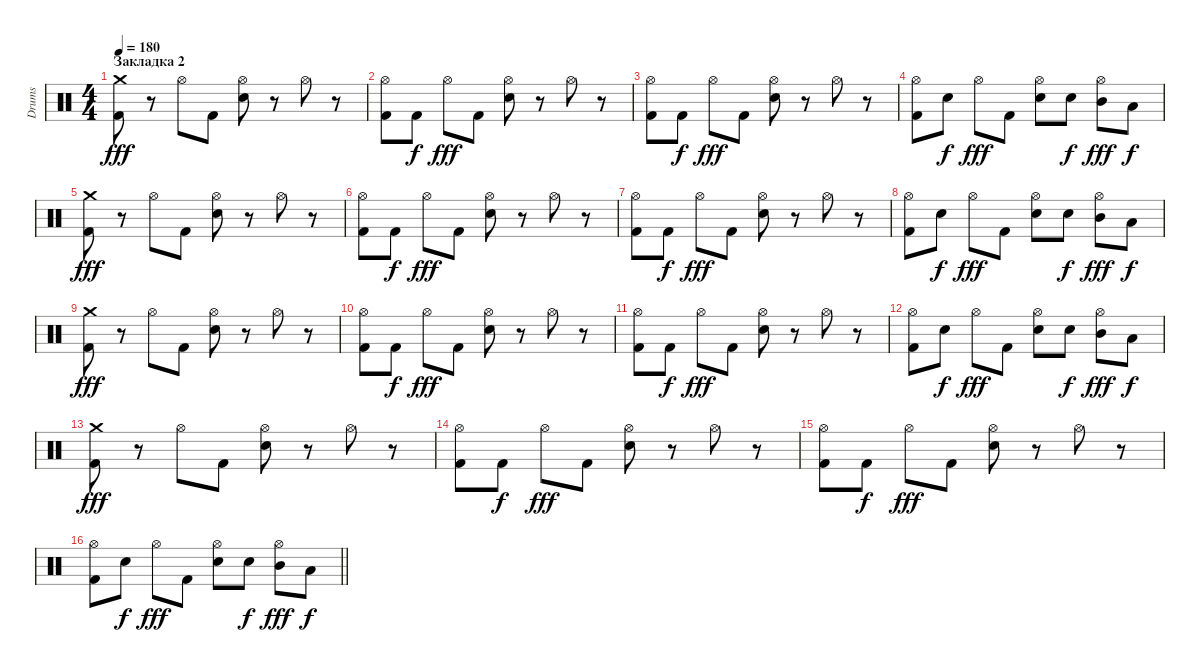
\track ("Drums" "Drums") {instrument percussion}
\staff {score}
\articulation defaults
\ts (4 4)
\section ("" "Закладка 2")
\tempo 180
\clef neutral
\ks c
("Crash medium (hit)" "Kick (hit) 2").8{dy fff} r.8 "Hi-Hat (open)".8 "Kick (hit) 2".8 ("Hi-Hat (open)" "Electric Snare (hit)").8 r.8 "Hi-Hat (open)".8 r.8 |
("Hi-Hat (open)" "Kick (hit) 2").8 "Kick (hit) 2".8{dy f} "Hi-Hat (open)".8{dy fff} "Kick (hit) 2".8 ("Hi-Hat (open)" "Electric Snare (hit)").8 r.8 "Hi-Hat (open)".8 r.8 |
("Hi-Hat (open)" "Kick (hit) 2").8 "Kick (hit) 2".8{dy f} "Hi-Hat (open)".8{dy fff} "Kick (hit) 2".8 ("Hi-Hat (open)" "Electric Snare (hit)").8 r.8 "Hi-Hat (open)".8 r.8 |
("Hi-Hat (open)" "Kick (hit) 2").8 "Electric Snare (hit)".8{dy f} "Hi-Hat (open)".8{dy fff} "Kick (hit) 2".8 ("Hi-Hat (open)" "Electric Snare (hit)").8 "Electric Snare (hit)".8{dy f} ("Hi-Hat (open)" "Mid Tom (hit)").8{dy fff} "Low Tom (hit)".8{dy f} |
("Crash medium (hit)" "Kick (hit) 2").8{dy fff} r.8 "Hi-Hat (open)".8 "Kick (hit) 2".8 ("Hi-Hat (open)" "Electric Snare (hit)").8 r.8 "Hi-Hat (open)".8 r.8 |
("Hi-Hat (open)" "Kick (hit) 2").8 "Kick (hit) 2".8{dy f} "Hi-Hat (open)".8{dy fff} "Kick (hit) 2".8 ("Hi-Hat (open)" "Electric Snare (hit)").8 r.8 "Hi-Hat (open)".8 r.8 |
("Hi-Hat (open)" "Kick (hit) 2").8 "Kick (hit) 2".8{dy f} "Hi-Hat (open)".8{dy fff} "Kick (hit) 2".8 ("Hi-Hat (open)" "Electric Snare (hit)").8 r.8 "Hi-Hat (open)".8 r.8 |
("Hi-Hat (open)" "Kick (hit) 2").8 "Electric Snare (hit)".8{dy f} "Hi-Hat (open)".8{dy fff} "Kick (hit) 2".8 ("Hi-Hat (open)" "Electric Snare (hit)").8 "Electric Snare (hit)".8{dy f} ("Hi-Hat (open)" "Mid Tom (hit)").8{dy fff} "Low Tom (hit)".8{dy f} |
("Crash medium (hit)" "Kick (hit) 2").8{dy fff} r.8 "Hi-Hat (open)".8 "Kick (hit) 2".8 ("Hi-Hat (open)" "Electric Snare (hit)").8 r.8 "Hi-Hat (open)".8 r.8 |
("Hi-Hat (open)" "Kick (hit) 2").8 "Kick (hit) 2".8{dy f} "Hi-Hat (open)".8{dy fff} "Kick (hit) 2".8 ("Hi-Hat (open)" "Electric Snare (hit)").8 r.8 "Hi-Hat (open)".8 r.8 |
("Hi-Hat (open)" "Kick (hit) 2").8 "Kick (hit) 2".8{dy f} "Hi-Hat (open)".8{dy fff} "Kick (hit) 2".8 ("Hi-Hat (open)" "Electric Snare (hit)").8 r.8 "Hi-Hat (open)".8 r.8 |
("Hi-Hat (open)" "Kick (hit) 2").8 "Electric Snare (hit)".8{dy f} "Hi-Hat (open)".8{dy fff} "Kick (hit) 2".8 ("Hi-Hat (open)" "Electric Snare (hit)").8 "Electric Snare (hit)".8{dy f} ("Hi-Hat (open)" "Mid Tom (hit)").8{dy fff} "Low Tom (hit)".8{dy f} |
("Crash medium (hit)" "Kick (hit) 2").8{dy fff} r.8 "Hi-Hat (open)".8 "Kick (hit) 2".8 ("Hi-Hat (open)" "Electric Snare (hit)").8 r.8 "Hi-Hat (open)".8 r.8 |
("Hi-Hat (open)" "Kick (hit) 2").8 "Kick (hit) 2".8{dy f} "Hi-Hat (open)".8{dy fff} "Kick (hit) 2".8 ("Hi-Hat (open)" "Electric Snare (hit)").8 r.8 "Hi-Hat (open)".8 r.8 |
("Hi-Hat (open)" "Kick (hit) 2").8 "Kick (hit) 2".8{dy f} "Hi-Hat (open)".8{dy fff} "Kick (hit) 2".8 ("Hi-Hat (open)" "Electric Snare (hit)").8 r.8 "Hi-Hat (open)".8 r.8 |
\barLineRight lightlight
("Hi-Hat (open)" "Kick (hit) 2").8 "Electric Snare (hit)".8{dy f} "Hi-Hat (open)".8{dy fff} "Kick (hit) 2".8 ("Hi-Hat (open)" "Electric Snare (hit)").8 "Electric Snare (hit)".8{dy f} ("Hi-Hat (open)" "Mid Tom (hit)").8{dy fff} "Low Tom (hit)".8{dy f}
